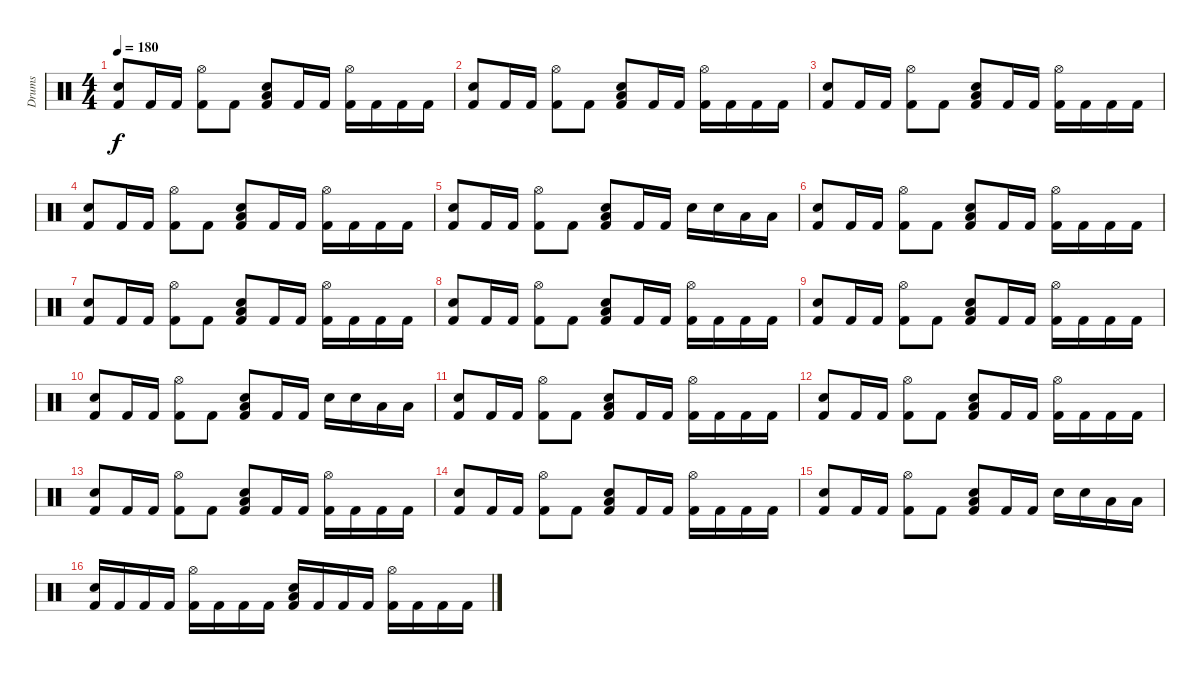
\track ("Drums" "Drums") {instrument percussion}
\staff {score}
\articulation defaults
\ts (4 4)
\tempo 180
\clef neutral
\ks c
("Kick (hit) 2" "Electric Snare (hit)").8{dy f} "Kick (hit) 2".16 "Kick (hit) 2".16 ("Kick (hit) 2" "Hi-Hat (open)").8 "Kick (hit) 2".8 ("Kick (hit) 2" "Low Tom (hit)" "Electric Snare (hit)").8 "Kick (hit) 2".16 "Kick (hit) 2".16 ("Kick (hit) 2" "Hi-Hat (open)").16 "Kick (hit) 2".16 "Kick (hit) 2".16 "Kick (hit) 2".16 |
("Kick (hit) 2" "Electric Snare (hit)").8 "Kick (hit) 2".16 "Kick (hit) 2".16 ("Kick (hit) 2" "Hi-Hat (open)").8 "Kick (hit) 2".8 ("Kick (hit) 2" "Low Tom (hit)" "Electric Snare (hit)").8 "Kick (hit) 2".16 "Kick (hit) 2".16 ("Kick (hit) 2" "Hi-Hat (open)").16 "Kick (hit) 2".16 "Kick (hit) 2".16 "Kick (hit) 2".16 |
("Kick (hit) 2" "Electric Snare (hit)").8 "Kick (hit) 2".16 "Kick (hit) 2".16 ("Kick (hit) 2" "Hi-Hat (open)").8 "Kick (hit) 2".8 ("Kick (hit) 2" "Low Tom (hit)" "Electric Snare (hit)").8 "Kick (hit) 2".16 "Kick (hit) 2".16 ("Kick (hit) 2" "Hi-Hat (open)").16 "Kick (hit) 2".16 "Kick (hit) 2".16 "Kick (hit) 2".16 |
("Kick (hit) 2" "Electric Snare (hit)").8 "Kick (hit) 2".16 "Kick (hit) 2".16 ("Kick (hit) 2" "Hi-Hat (open)").8 "Kick (hit) 2".8 ("Kick (hit) 2" "Low Tom (hit)" "Electric Snare (hit)").8 "Kick (hit) 2".16 "Kick (hit) 2".16 ("Kick (hit) 2" "Hi-Hat (open)").16 "Kick (hit) 2".16 "Kick (hit) 2".16 "Kick (hit) 2".16 |
("Kick (hit) 2" "Electric Snare (hit)").8 "Kick (hit) 2".16 "Kick (hit) 2".16 ("Kick (hit) 2" "Hi-Hat (open)").8 "Kick (hit) 2".8 ("Kick (hit) 2" "Low Tom (hit)" "Electric Snare (hit)").8 "Kick (hit) 2".16 "Kick (hit) 2".16 "Electric Snare (hit)".16 "Electric Snare (hit)".16 "Low Tom (hit)".16 "Low Tom (hit)".16 |
\section ("" "")
("Kick (hit) 2" "Electric Snare (hit)").8 "Kick (hit) 2".16 "Kick (hit) 2".16 ("Kick (hit) 2" "Hi-Hat (open)").8 "Kick (hit) 2".8 ("Kick (hit) 2" "Low Tom (hit)" "Electric Snare (hit)").8 "Kick (hit) 2".16 "Kick (hit) 2".16 ("Kick (hit) 2" "Hi-Hat (open)").16 "Kick (hit) 2".16 "Kick (hit) 2".16 "Kick (hit) 2".16 |
("Kick (hit) 2" "Electric Snare (hit)").8 "Kick (hit) 2".16 "Kick (hit) 2".16 ("Kick (hit) 2" "Hi-Hat (open)").8 "Kick (hit) 2".8 ("Kick (hit) 2" "Low Tom (hit)" "Electric Snare (hit)").8 "Kick (hit) 2".16 "Kick (hit) 2".16 ("Kick (hit) 2" "Hi-Hat (open)").16 "Kick (hit) 2".16 "Kick (hit) 2".16 "Kick (hit) 2".16 |
("Kick (hit) 2" "Electric Snare (hit)").8 "Kick (hit) 2".16 "Kick (hit) 2".16 ("Kick (hit) 2" "Hi-Hat (open)").8 "Kick (hit) 2".8 ("Kick (hit) 2" "Low Tom (hit)" "Electric Snare (hit)").8 "Kick (hit) 2".16 "Kick (hit) 2".16 ("Kick (hit) 2" "Hi-Hat (open)").16 "Kick (hit) 2".16 "Kick (hit) 2".16 "Kick (hit) 2".16 |
("Kick (hit) 2" "Electric Snare (hit)").8 "Kick (hit) 2".16 "Kick (hit) 2".16 ("Kick (hit) 2" "Hi-Hat (open)").8 "Kick (hit) 2".8 ("Kick (hit) 2" "Low Tom (hit)" "Electric Snare (hit)").8 "Kick (hit) 2".16 "Kick (hit) 2".16 ("Kick (hit) 2" "Hi-Hat (open)").16 "Kick (hit) 2".16 "Kick (hit) 2".16 "Kick (hit) 2".16 |
("Kick (hit) 2" "Electric Snare (hit)").8 "Kick (hit) 2".16 "Kick (hit) 2".16 ("Kick (hit) 2" "Hi-Hat (open)").8 "Kick (hit) 2".8 ("Kick (hit) 2" "Low Tom (hit)" "Electric Snare (hit)").8 "Kick (hit) 2".16 "Kick (hit) 2".16 "Electric Snare (hit)".16 "Electric Snare (hit)".16 "Low Tom (hit)".16 "Low Tom (hit)".16 |
("Kick (hit) 2" "Electric Snare (hit)").8 "Kick (hit) 2".16 "Kick (hit) 2".16 ("Kick (hit) 2" "Hi-Hat (open)").8 "Kick (hit) 2".8 ("Kick (hit) 2" "Low Tom (hit)" "Electric Snare (hit)").8 "Kick (hit) 2".16 "Kick (hit) 2".16 ("Kick (hit) 2" "Hi-Hat (open)").16 "Kick (hit) 2".16 "Kick (hit) 2".16 "Kick (hit) 2".16 |
("Kick (hit) 2" "Electric Snare (hit)").8 "Kick (hit) 2".16 "Kick (hit) 2".16 ("Kick (hit) 2" "Hi-Hat (open)").8 "Kick (hit) 2".8 ("Kick (hit) 2" "Low Tom (hit)" "Electric Snare (hit)").8 "Kick (hit) 2".16 "Kick (hit) 2".16 ("Kick (hit) 2" "Hi-Hat (open)").16 "Kick (hit) 2".16 "Kick (hit) 2".16 "Kick (hit) 2".16 |
("Kick (hit) 2" "Electric Snare (hit)").8 "Kick (hit) 2".16 "Kick (hit) 2".16 ("Kick (hit) 2" "Hi-Hat (open)").8 "Kick (hit) 2".8 ("Kick (hit) 2" "Low Tom (hit)" "Electric Snare (hit)").8 "Kick (hit) 2".16 "Kick (hit) 2".16 ("Kick (hit) 2" "Hi-Hat (open)").16 "Kick (hit) 2".16 "Kick (hit) 2".16 "Kick (hit) 2".16 |
("Kick (hit) 2" "Electric Snare (hit)").8 "Kick (hit) 2".16 "Kick (hit) 2".16 ("Kick (hit) 2" "Hi-Hat (open)").8 "Kick (hit) 2".8 ("Kick (hit) 2" "Low Tom (hit)" "Electric Snare (hit)").8 "Kick (hit) 2".16 "Kick (hit) 2".16 ("Kick (hit) 2" "Hi-Hat (open)").16 "Kick (hit) 2".16 "Kick (hit) 2".16 "Kick (hit) 2".16 |
("Kick (hit) 2" "Electric Snare (hit)").8 "Kick (hit) 2".16 "Kick (hit) 2".16 ("Kick (hit) 2" "Hi-Hat (open)").8 "Kick (hit) 2".8 ("Kick (hit) 2" "Low Tom (hit)" "Electric Snare (hit)").8 "Kick (hit) 2".16 "Kick (hit) 2".16 "Electric Snare (hit)".16 "Electric Snare (hit)".16 "Low Tom (hit)".16 "Low Tom (hit)".16 |
("Kick (hit) 2" "Electric Snare (hit)").16 "Kick (hit) 2".16 "Kick (hit) 2".16 "Kick (hit) 2".16 ("Kick (hit) 2" "Hi-Hat (open)").16 "Kick (hit) 2".16 "Kick (hit) 2".16 "Kick (hit) 2".16 ("Kick (hit) 2" "Low Tom (hit)" "Electric Snare (hit)").16 "Kick (hit) 2".16 "Kick (hit) 2".16 "Kick (hit) 2".16 ("Kick (hit) 2" "Hi-Hat (open)").16 "Kick (hit) 2".16 "Kick (hit) 2".16 "Kick (hit) 2".16
